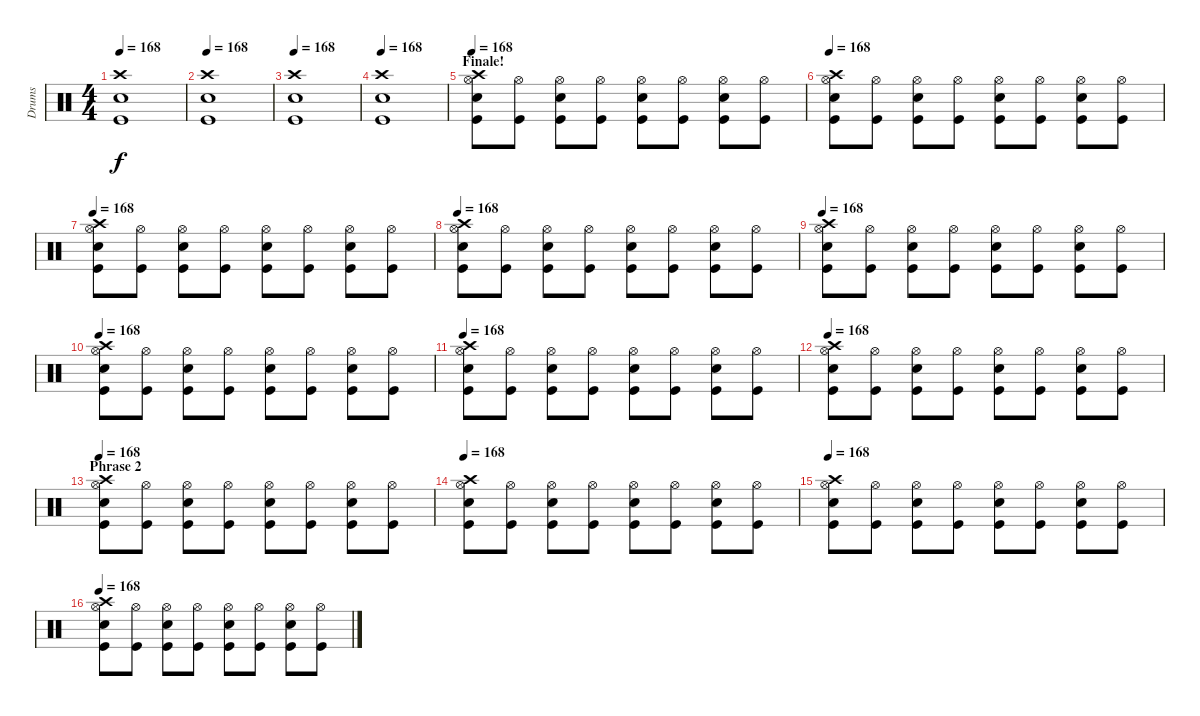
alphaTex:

\track ("Drums" "Drums") {instrument percussion}
\staff {score}
\articulation defaults
\ts (4 4)
\tempo 168
\clef neutral
\ks c
("Crash high (hit)" "Snare (hit) 2" "Kick (hit)").1{dy f} |
\tempo 168
("Crash high (hit)" "Snare (hit) 2" "Kick (hit)").1 |
\tempo 168
("Crash high (hit)" "Snare (hit) 2" "Kick (hit)").1 |
\tempo 168
("Crash high (hit)" "Snare (hit) 2" "Kick (hit)").1 |
\section ("" "Finale!")
\tempo 168
("Hi-Hat (open)" "Crash high (hit)" "Snare (hit) 2" "Kick (hit)").8 ("Hi-Hat (open)" "Kick (hit)").8 ("Hi-Hat (open)" "Snare (hit) 2" "Kick (hit)").8 ("Hi-Hat (open)" "Kick (hit)").8 ("Hi-Hat (open)" "Snare (hit) 2" "Kick (hit)").8 ("Hi-Hat (open)" "Kick (hit)").8 ("Hi-Hat (open)" "Snare (hit) 2" "Kick (hit)").8 ("Hi-Hat (open)" "Kick (hit)").8 |
\tempo 168
("Hi-Hat (open)" "Crash high (hit)" "Snare (hit) 2" "Kick (hit)").8 ("Hi-Hat (open)" "Kick (hit)").8 ("Hi-Hat (open)" "Snare (hit) 2" "Kick (hit)").8 ("Hi-Hat (open)" "Kick (hit)").8 ("Hi-Hat (open)" "Snare (hit) 2" "Kick (hit)").8 ("Hi-Hat (open)" "Kick (hit)").8 ("Hi-Hat (open)" "Snare (hit) 2" "Kick (hit)").8 ("Hi-Hat (open)" "Kick (hit)").8 |
\tempo 168
("Hi-Hat (open)" "Crash high (hit)" "Snare (hit) 2" "Kick (hit)").8 ("Hi-Hat (open)" "Kick (hit)").8 ("Hi-Hat (open)" "Snare (hit) 2" "Kick (hit)").8 ("Hi-Hat (open)" "Kick (hit)").8 ("Hi-Hat (open)" "Snare (hit) 2" "Kick (hit)").8 ("Hi-Hat (open)" "Kick (hit)").8 ("Hi-Hat (open)" "Snare (hit) 2" "Kick (hit)").8 ("Hi-Hat (open)" "Kick (hit)").8 |
\tempo 168
("Hi-Hat (open)" "Crash high (hit)" "Snare (hit) 2" "Kick (hit)").8 ("Hi-Hat (open)" "Kick (hit)").8 ("Hi-Hat (open)" "Snare (hit) 2" "Kick (hit)").8 ("Hi-Hat (open)" "Kick (hit)").8 ("Hi-Hat (open)" "Snare (hit) 2" "Kick (hit)").8 ("Hi-Hat (open)" "Kick (hit)").8 ("Hi-Hat (open)" "Snare (hit) 2" "Kick (hit)").8 ("Hi-Hat (open)" "Kick (hit)").8 |
\tempo 168
("Hi-Hat (open)" "Crash high (hit)" "Snare (hit) 2" "Kick (hit)").8 ("Hi-Hat (open)" "Kick (hit)").8 ("Hi-Hat (open)" "Snare (hit) 2" "Kick (hit)").8 ("Hi-Hat (open)" "Kick (hit)").8 ("Hi-Hat (open)" "Snare (hit) 2" "Kick (hit)").8 ("Hi-Hat (open)" "Kick (hit)").8 ("Hi-Hat (open)" "Snare (hit) 2" "Kick (hit)").8 ("Hi-Hat (open)" "Kick (hit)").8 |
\tempo 168
("Hi-Hat (open)" "Crash high (hit)" "Snare (hit) 2" "Kick (hit)").8 ("Hi-Hat (open)" "Kick (hit)").8 ("Hi-Hat (open)" "Snare (hit) 2" "Kick (hit)").8 ("Hi-Hat (open)" "Kick (hit)").8 ("Hi-Hat (open)" "Snare (hit) 2" "Kick (hit)").8 ("Hi-Hat (open)" "Kick (hit)").8 ("Hi-Hat (open)" "Snare (hit) 2" "Kick (hit)").8 ("Hi-Hat (open)" "Kick (hit)").8 |
\tempo 168
("Hi-Hat (open)" "Crash high (hit)" "Snare (hit) 2" "Kick (hit)").8 ("Hi-Hat (open)" "Kick (hit)").8 ("Hi-Hat (open)" "Snare (hit) 2" "Kick (hit)").8 ("Hi-Hat (open)" "Kick (hit)").8 ("Hi-Hat (open)" "Snare (hit) 2" "Kick (hit)").8 ("Hi-Hat (open)" "Kick (hit)").8 ("Hi-Hat (open)" "Snare (hit) 2" "Kick (hit)").8 ("Hi-Hat (open)" "Kick (hit)").8 |
\tempo 168
("Hi-Hat (open)" "Crash high (hit)" "Snare (hit) 2" "Kick (hit)").8 ("Hi-Hat (open)" "Kick (hit)").8 ("Hi-Hat (open)" "Snare (hit) 2" "Kick (hit)").8 ("Hi-Hat (open)" "Kick (hit)").8 ("Hi-Hat (open)" "Snare (hit) 2" "Kick (hit)").8 ("Hi-Hat (open)" "Kick (hit)").8 ("Hi-Hat (open)" "Snare (hit) 2" "Kick (hit)").8 ("Hi-Hat (open)" "Kick (hit)").8 |
\section ("" "Phrase 2")
\tempo 168
("Hi-Hat (open)" "Crash high (hit)" "Snare (hit) 2" "Kick (hit)").8 ("Hi-Hat (open)" "Kick (hit)").8 ("Hi-Hat (open)" "Snare (hit) 2" "Kick (hit)").8 ("Hi-Hat (open)" "Kick (hit)").8 ("Hi-Hat (open)" "Snare (hit) 2" "Kick (hit)").8 ("Hi-Hat (open)" "Kick (hit)").8 ("Hi-Hat (open)" "Snare (hit) 2" "Kick (hit)").8 ("Hi-Hat (open)" "Kick (hit)").8 |
\tempo 168
("Hi-Hat (open)" "Crash high (hit)" "Snare (hit) 2" "Kick (hit)").8 ("Hi-Hat (open)" "Kick (hit)").8 ("Hi-Hat (open)" "Snare (hit) 2" "Kick (hit)").8 ("Hi-Hat (open)" "Kick (hit)").8 ("Hi-Hat (open)" "Snare (hit) 2" "Kick (hit)").8 ("Hi-Hat (open)" "Kick (hit)").8 ("Hi-Hat (open)" "Snare (hit) 2" "Kick (hit)").8 ("Hi-Hat (open)" "Kick (hit)").8 |
\tempo 168
("Hi-Hat (open)" "Crash high (hit)" "Snare (hit) 2" "Kick (hit)").8 ("Hi-Hat (open)" "Kick (hit)").8 ("Hi-Hat (open)" "Snare (hit) 2" "Kick (hit)").8 ("Hi-Hat (open)" "Kick (hit)").8 ("Hi-Hat (open)" "Snare (hit) 2" "Kick (hit)").8 ("Hi-Hat (open)" "Kick (hit)").8 ("Hi-Hat (open)" "Snare (hit) 2" "Kick (hit)").8 ("Hi-Hat (open)" "Kick (hit)").8 |
\tempo 168
("Hi-Hat (open)" "Crash high (hit)" "Snare (hit) 2" "Kick (hit)").8 ("Hi-Hat (open)" "Kick (hit)").8 ("Hi-Hat (open)" "Snare (hit) 2" "Kick (hit)").8 ("Hi-Hat (open)" "Kick (hit)").8 ("Hi-Hat (open)" "Snare (hit) 2" "Kick (hit)").8 ("Hi-Hat (open)" "Kick (hit)").8 ("Hi-Hat (open)" "Snare (hit) 2" "Kick (hit)").8 ("Hi-Hat (open)" "Kick (hit)").8
